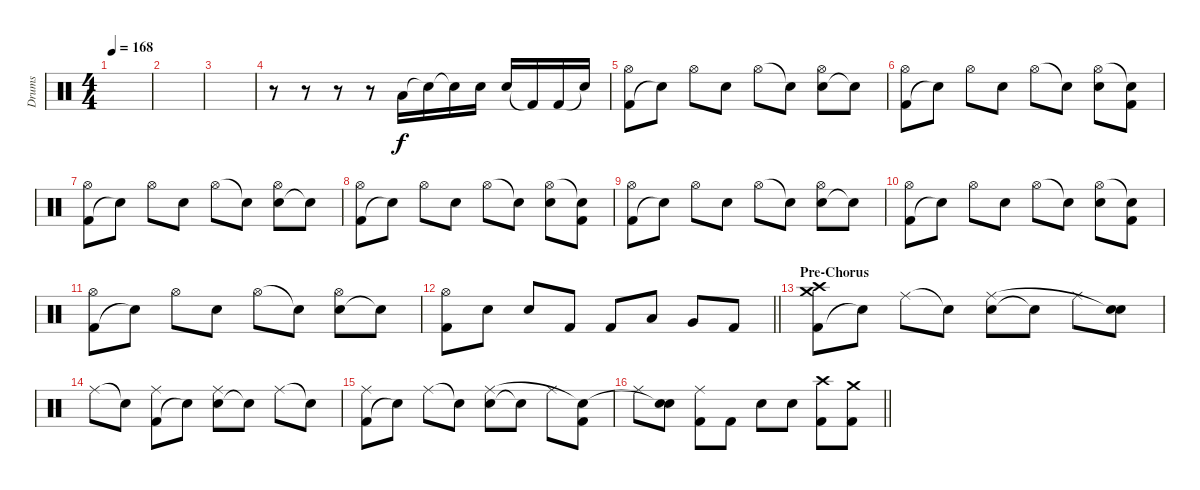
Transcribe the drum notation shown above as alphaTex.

\track ("Drums" "Drums") {instrument percussion}
\staff {score}
\articulation defaults
\ts (4 4)
\tempo 168
\clef neutral
\ks c
|
|
|
r.8 r.8 r.8 r.8 "Low Tom (hit)".16 "Snare (hit)"{t}.16 "Electric Snare (hit)"{t}.16 "Electric Snare (hit)".16 "Electric Snare (hit)".16 "Kick (hit) 2"{t}.16 "Kick (hit) 2".16 "Snare (hit)"{t}.16 |
("Kick (hit) 2" "Hi-Hat (open)").8 "Snare (hit)"{t}.8 "Hi-Hat (open)".8 "Electric Snare (hit)".8 "Hi-Hat (open)".8 "Snare (hit)"{t}.8 ("Electric Snare (hit)" "Hi-Hat (open)").8 "Snare (hit)"{t}.8 |
("Kick (hit) 2" "Hi-Hat (open)").8 "Snare (hit)"{t}.8 "Hi-Hat (open)".8 "Electric Snare (hit)".8 "Hi-Hat (open)".8 "Snare (hit)"{t}.8 ("Electric Snare (hit)" "Hi-Hat (open)").8 ("Kick (hit) 2" "Snare (hit)"{t}).8 |
("Kick (hit) 2" "Hi-Hat (open)").8 "Snare (hit)"{t}.8 "Hi-Hat (open)".8 "Electric Snare (hit)".8 "Hi-Hat (open)".8 "Snare (hit)"{t}.8 ("Electric Snare (hit)" "Hi-Hat (open)").8 "Snare (hit)"{t}.8 |
("Kick (hit) 2" "Hi-Hat (open)").8 "Snare (hit)"{t}.8 "Hi-Hat (open)".8 "Electric Snare (hit)".8 "Hi-Hat (open)".8 "Snare (hit)"{t}.8 ("Electric Snare (hit)" "Hi-Hat (open)").8 ("Kick (hit) 2" "Snare (hit)"{t}).8 |
("Kick (hit) 2" "Hi-Hat (open)").8 "Snare (hit)"{t}.8 "Hi-Hat (open)".8 "Electric Snare (hit)".8 "Hi-Hat (open)".8 "Snare (hit)"{t}.8 ("Electric Snare (hit)" "Hi-Hat (open)").8 "Snare (hit)"{t}.8 |
("Kick (hit) 2" "Hi-Hat (open)").8 "Snare (hit)"{t}.8 "Hi-Hat (open)".8 "Electric Snare (hit)".8 "Hi-Hat (open)".8 "Snare (hit)"{t}.8 ("Electric Snare (hit)" "Hi-Hat (open)").8 ("Kick (hit) 2" "Snare (hit)"{t}).8 |
("Kick (hit) 2" "Hi-Hat (open)").8 "Snare (hit)"{t}.8 "Hi-Hat (open)".8 "Electric Snare (hit)".8 "Hi-Hat (open)".8 "Snare (hit)"{t}.8 ("Electric Snare (hit)" "Hi-Hat (open)").8 "Snare (hit)"{t}.8 |
\barLineRight lightlight
("Kick (hit) 2" "Hi-Hat (open)").8 "Electric Snare (hit)".8 "Electric Snare (hit)".8 "Kick (hit) 2".8 "Kick (hit) 2".8 "Low Tom (hit)".8 "Very Low Tom (hit)".8 "Kick (hit) 2".8 |
\section ("" "Pre-Chorus")
("Kick (hit) 2" "Crash medium (hit)" "Crash high (hit)").8 "Snare (hit)"{t}.8 "Ride (middle)".8 "Snare (hit)"{t}.8 ("Electric Snare (hit)" "Ride (middle)").8 "Snare (hit)"{t}.8 "Ride (middle)".8 ("Electric Snare (hit)" "Snare (hit)"{t}).8 |
"Ride (middle)".8 "Snare (hit)"{t}.8 ("Kick (hit) 2" "Ride (middle)").8 "Snare (hit)"{t}.8 ("Electric Snare (hit)" "Ride (middle)").8 "Snare (hit)"{t}.8 "Ride (middle)".8 "Snare (hit)"{t}.8 |
("Kick (hit) 2" "Ride (middle)").8 "Snare (hit)"{t}.8 "Ride (middle)".8 "Snare (hit)"{t}.8 ("Electric Snare (hit)" "Ride (middle)").8 "Snare (hit)"{t}.8 "Ride (middle)".8 ("Kick (hit) 2" "Snare (hit)"{t}).8 |
\barLineRight lightlight "Ride (middle)".8
("Electric Snare (hit)" "Snare (hit)"{t}).8 ("Kick (hit) 2" "Ride (middle)").8 "Kick (hit) 2".8 "Electric Snare (hit)".8 "Electric Snare (hit)".8 ("Kick (hit) 2" "Crash high (hit)").8 ("Kick (hit) 2" "Crash medium (hit)").8
